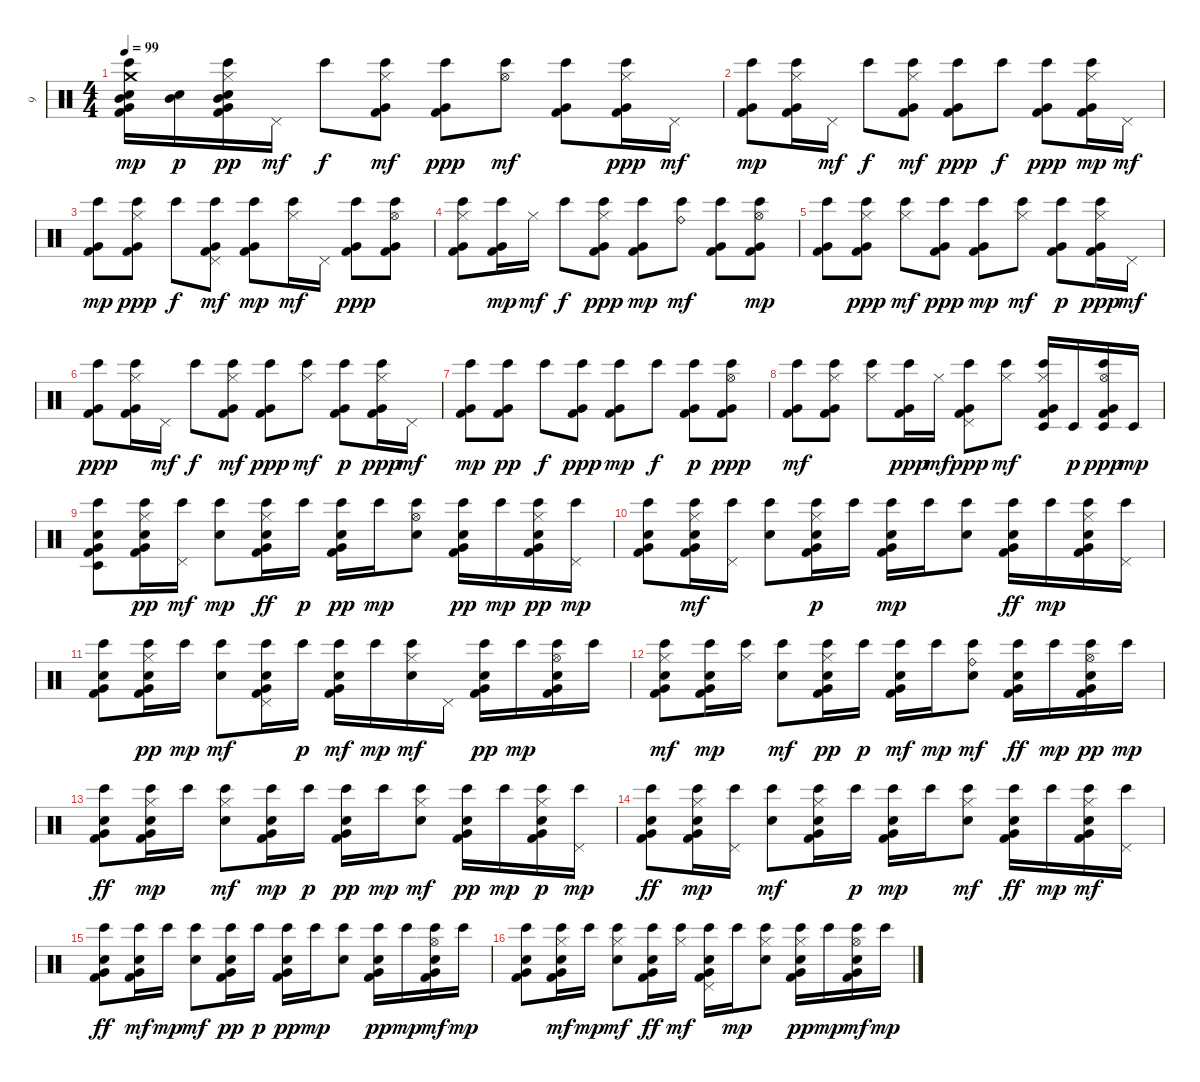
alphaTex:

\track ("9" "9") {instrument percussion}
\staff {score}
\articulation defaults
\ts (4 4)
\tempo 99
\clef neutral
\ks c
("Mid Tom (hit)" "Very Low Tom (hit)" "Kick (hit) 2" "Electric Snare (hit)" "Crash medium (hit)" "Bongo High (hit)").16{dy mp} ("Mid Tom (hit)" "Electric Snare (hit)").16{dy p} ("Bongo High (hit)" "Kick (hit) 2" "Very Low Tom (hit)" "Electric Snare (hit)" "Hi-Hat (closed)" "Mid Tom (hit)").16{dy pp} "Pedal Hi-Hat (hit)".16{dy mf} "Bongo High (hit)".8{dy f} ("Kick (hit) 2" "Very Low Tom (hit)" "Bongo High (hit)" "Hi-Hat (closed)").8{dy mf} ("Kick (hit) 2" "Bongo High (hit)" "Very Low Tom (hit)").8{dy ppp} ("Bongo High (hit)" "Hi-Hat (open)").8{dy mf} ("Bongo High (hit)" "Very Low Tom (hit)" "Kick (hit) 2").8 ("Kick (hit) 2" "Hi-Hat (closed)" "Bongo High (hit)" "Very Low Tom (hit)").16{dy ppp} "Pedal Hi-Hat (hit)".16{dy mf} |
("Kick (hit) 2" "Very Low Tom (hit)" "Bongo High (hit)").8{dy mp} ("Bongo High (hit)" "Hi-Hat (closed)" "Very Low Tom (hit)" "Kick (hit) 2").16 "Pedal Hi-Hat (hit)".16{dy mf} "Bongo High (hit)".8{dy f} ("Very Low Tom (hit)" "Kick (hit) 2" "Bongo High (hit)" "Hi-Hat (closed)").8{dy mf} ("Kick (hit) 2" "Bongo High (hit)" "Very Low Tom (hit)").8{dy ppp} "Bongo High (hit)".8{dy f} ("Kick (hit) 2" "Bongo High (hit)" "Very Low Tom (hit)").8{dy ppp} ("Hi-Hat (closed)" "Bongo High (hit)" "Very Low Tom (hit)" "Kick (hit) 2").16{dy mp} "Pedal Hi-Hat (hit)".16{dy mf} |
("Very Low Tom (hit)" "Kick (hit) 2" "Bongo High (hit)").8{dy mp} ("Hi-Hat (closed)" "Bongo High (hit)" "Kick (hit) 2" "Very Low Tom (hit)").8{dy ppp} "Bongo High (hit)".8{dy f} ("Kick (hit) 2" "Bongo High (hit)" "Very Low Tom (hit)" "Pedal Hi-Hat (hit)").8{dy mf} ("Very Low Tom (hit)" "Bongo High (hit)" "Kick (hit) 2").8{dy mp} ("Hi-Hat (closed)" "Bongo High (hit)").16{dy mf} "Pedal Hi-Hat (hit)".16 ("Kick (hit) 2" "Bongo High (hit)" "Very Low Tom (hit)").8{dy ppp} ("Kick (hit) 2" "Hi-Hat (open)" "Bongo High (hit)" "Very Low Tom (hit)").8 |
("Hi-Hat (closed)" "Kick (hit) 2" "Bongo High (hit)" "Very Low Tom (hit)").8 ("Bongo High (hit)" "Very Low Tom (hit)" "Kick (hit) 2").16{dy mp} "Hi-Hat (closed)".16{dy mf} "Bongo High (hit)".8{dy f} ("Hi-Hat (closed)" "Kick (hit) 2" "Bongo High (hit)" "Very Low Tom (hit)").8{dy ppp} ("Bongo High (hit)" "Very Low Tom (hit)" "Kick (hit) 2").8{dy mp} ("Bongo High (hit)" "Ride (bell)").8{dy mf} ("Bongo High (hit)" "Very Low Tom (hit)" "Kick (hit) 2").8 ("Hi-Hat (open)" "Very Low Tom (hit)" "Kick (hit) 2" "Bongo High (hit)").8{dy mp} |
("Very Low Tom (hit)" "Kick (hit) 2" "Bongo High (hit)").8 ("Hi-Hat (closed)" "Bongo High (hit)" "Kick (hit) 2" "Very Low Tom (hit)").8{dy ppp} ("Hi-Hat (closed)" "Bongo High (hit)").8{dy mf} ("Bongo High (hit)" "Very Low Tom (hit)" "Kick (hit) 2").8{dy ppp} ("Bongo High (hit)" "Very Low Tom (hit)" "Kick (hit) 2").8{dy mp} ("Hi-Hat (closed)" "Bongo High (hit)").8{dy mf} ("Kick (hit) 2" "Very Low Tom (hit)" "Bongo High (hit)").8{dy p} ("Hi-Hat (closed)" "Kick (hit) 2" "Bongo High (hit)" "Very Low Tom (hit)").16{dy ppp} "Pedal Hi-Hat (hit)".16{dy mf} |
("Kick (hit) 2" "Bongo High (hit)" "Very Low Tom (hit)").8{dy ppp} ("Bongo High (hit)" "Kick (hit) 2" "Hi-Hat (closed)" "Very Low Tom (hit)").16 "Pedal Hi-Hat (hit)".16{dy mf} "Bongo High (hit)".8{dy f} ("Bongo High (hit)" "Kick (hit) 2" "Very Low Tom (hit)" "Hi-Hat (closed)").8{dy mf} ("Kick (hit) 2" "Bongo High (hit)" "Very Low Tom (hit)").8{dy ppp} ("Hi-Hat (closed)" "Bongo High (hit)").8{dy mf} ("Very Low Tom (hit)" "Kick (hit) 2" "Bongo High (hit)").8{dy p} ("Kick (hit) 2" "Hi-Hat (closed)" "Bongo High (hit)" "Very Low Tom (hit)").16{dy ppp} "Pedal Hi-Hat (hit)".16{dy mf} |
("Kick (hit) 2" "Very Low Tom (hit)" "Bongo High (hit)").8{dy mp} ("Kick (hit) 2" "Very Low Tom (hit)" "Bongo High (hit)").8{dy pp} "Bongo High (hit)".8{dy f} ("Bongo High (hit)" "Very Low Tom (hit)" "Kick (hit) 2").8{dy ppp} ("Bongo High (hit)" "Very Low Tom (hit)" "Kick (hit) 2").8{dy mp} "Bongo High (hit)".8{dy f} ("Very Low Tom (hit)" "Kick (hit) 2" "Bongo High (hit)").8{dy p} ("Kick (hit) 2" "Bongo High (hit)" "Hi-Hat (open)" "Very Low Tom (hit)").8{dy ppp} |
("Bongo High (hit)" "Very Low Tom (hit)" "Kick (hit) 2").8{dy mf} ("Very Low Tom (hit)" "Bongo High (hit)" "Kick (hit) 2" "Hi-Hat (closed)").8 ("Hi-Hat (closed)" "Bongo High (hit)").8 ("Kick (hit) 2" "Bongo High (hit)" "Very Low Tom (hit)").16{dy ppp} "Hi-Hat (closed)".16{dy mf} ("Pedal Hi-Hat (hit)" "Bongo High (hit)" "Kick (hit) 2" "Very Low Tom (hit)").8{dy ppp} ("Hi-Hat (closed)" "Bongo High (hit)").8{dy mf} ("Very Low Tom (hit)" "Kick (hit) 2" "Bongo High (hit)" "Timbale low (hit)" "Hi-Hat (closed)").16 "Timbale low (hit)".16{dy p} ("Kick (hit) 2" "Bongo High (hit)" "Timbale low (hit)" "Hi-Hat (open)" "Very Low Tom (hit)").16{dy ppp} "Timbale low (hit)".16{dy mp} |
("Timbale low (hit)" "Kick (hit) 2" "Very Low Tom (hit)" "Electric Snare (hit)" "Bongo High (hit)").8 ("Kick (hit) 2" "Hi-Hat (closed)" "Electric Snare (hit)" "Bongo High (hit)" "Very Low Tom (hit)").16{dy pp} ("Bongo High (hit)" "Pedal Hi-Hat (hit)").16{dy mf} ("Electric Snare (hit)" "Bongo High (hit)").8{dy mp} ("Bongo High (hit)" "Hi-Hat (closed)" "Electric Snare (hit)" "Very Low Tom (hit)" "Kick (hit) 2").16{dy ff} "Bongo High (hit)".16{dy p} ("Kick (hit) 2" "Very Low Tom (hit)" "Bongo High (hit)" "Electric Snare (hit)").16{dy pp} "Bongo High (hit)".16{dy mp} ("Hi-Hat (open)" "Electric Snare (hit)" "Bongo High (hit)").8 ("Kick (hit) 2" "Bongo High (hit)" "Very Low Tom (hit)" "Electric Snare (hit)").16{dy pp} "Bongo High (hit)".16{dy mp} ("Bongo High (hit)" "Hi-Hat (closed)" "Electric Snare (hit)" "Kick (hit) 2" "Very Low Tom (hit)").16{dy pp} ("Pedal Hi-Hat (hit)" "Bongo High (hit)").16{dy mp} |
("Electric Snare (hit)" "Very Low Tom (hit)" "Kick (hit) 2" "Bongo High (hit)").8 ("Electric Snare (hit)" "Very Low Tom (hit)" "Kick (hit) 2" "Hi-Hat (closed)" "Bongo High (hit)").16{dy mf} ("Bongo High (hit)" "Pedal Hi-Hat (hit)").16 ("Bongo High (hit)" "Electric Snare (hit)").8 ("Kick (hit) 2" "Bongo High (hit)" "Hi-Hat (closed)" "Very Low Tom (hit)" "Electric Snare (hit)").16{dy p} "Bongo High (hit)".16 ("Very Low Tom (hit)" "Bongo High (hit)" "Electric Snare (hit)" "Kick (hit) 2").16{dy mp} "Bongo High (hit)".16 ("Electric Snare (hit)" "Bongo High (hit)").8 ("Electric Snare (hit)" "Bongo High (hit)" "Very Low Tom (hit)" "Kick (hit) 2").16{dy ff} "Bongo High (hit)".16{dy mp} ("Electric Snare (hit)" "Hi-Hat (closed)" "Kick (hit) 2" "Very Low Tom (hit)" "Bongo High (hit)").16 ("Pedal Hi-Hat (hit)" "Bongo High (hit)").16 |
("Kick (hit) 2" "Bongo High (hit)" "Very Low Tom (hit)" "Electric Snare (hit)").8 ("Kick (hit) 2" "Bongo High (hit)" "Electric Snare (hit)" "Hi-Hat (closed)" "Very Low Tom (hit)").16{dy pp} "Bongo High (hit)".16{dy mp} ("Bongo High (hit)" "Electric Snare (hit)").8{dy mf} ("Electric Snare (hit)" "Kick (hit) 2" "Bongo High (hit)" "Very Low Tom (hit)" "Pedal Hi-Hat (hit)").16 "Bongo High (hit)".16{dy p} ("Very Low Tom (hit)" "Electric Snare (hit)" "Kick (hit) 2" "Bongo High (hit)").16{dy mf} "Bongo High (hit)".16{dy mp} ("Electric Snare (hit)" "Bongo High (hit)" "Hi-Hat (closed)").16{dy mf} "Pedal Hi-Hat (hit)".16 ("Kick (hit) 2" "Bongo High (hit)" "Electric Snare (hit)" "Very Low Tom (hit)").16{dy pp} "Bongo High (hit)".16{dy mp} ("Kick (hit) 2" "Electric Snare (hit)" "Hi-Hat (open)" "Very Low Tom (hit)" "Bongo High (hit)").16 "Bongo High (hit)".16 |
("Very Low Tom (hit)" "Electric Snare (hit)" "Bongo High (hit)" "Kick (hit) 2" "Hi-Hat (closed)").8{dy mf} ("Very Low Tom (hit)" "Bongo High (hit)" "Electric Snare (hit)" "Kick (hit) 2").16{dy mp} ("Hi-Hat (closed)" "Bongo High (hit)").16 ("Bongo High (hit)" "Electric Snare (hit)").8{dy mf} ("Hi-Hat (closed)" "Electric Snare (hit)" "Bongo High (hit)" "Kick (hit) 2" "Very Low Tom (hit)").16{dy pp} "Bongo High (hit)".16{dy p} ("Electric Snare (hit)" "Kick (hit) 2" "Very Low Tom (hit)" "Bongo High (hit)").16{dy mf} "Bongo High (hit)".16{dy mp} ("Electric Snare (hit)" "Bongo High (hit)" "Ride (bell)").8{dy mf} ("Very Low Tom (hit)" "Electric Snare (hit)" "Bongo High (hit)" "Kick (hit) 2").16{dy ff} "Bongo High (hit)".16{dy mp} ("Bongo High (hit)" "Kick (hit) 2" "Electric Snare (hit)" "Hi-Hat (open)" "Very Low Tom (hit)").16{dy pp} "Bongo High (hit)".16{dy mp} |
("Electric Snare (hit)" "Very Low Tom (hit)" "Bongo High (hit)" "Kick (hit) 2").8{dy ff} ("Very Low Tom (hit)" "Electric Snare (hit)" "Hi-Hat (closed)" "Bongo High (hit)" "Kick (hit) 2").16{dy mp} "Bongo High (hit)".16 ("Bongo High (hit)" "Electric Snare (hit)" "Hi-Hat (closed)").8{dy mf} ("Kick (hit) 2" "Electric Snare (hit)" "Very Low Tom (hit)" "Bongo High (hit)").16{dy mp} "Bongo High (hit)".16{dy p} ("Bongo High (hit)" "Electric Snare (hit)" "Kick (hit) 2" "Very Low Tom (hit)").16{dy pp} "Bongo High (hit)".16{dy mp} ("Bongo High (hit)" "Electric Snare (hit)" "Hi-Hat (closed)").8{dy mf} ("Very Low Tom (hit)" "Bongo High (hit)" "Kick (hit) 2" "Electric Snare (hit)").16{dy pp} "Bongo High (hit)".16{dy mp} ("Bongo High (hit)" "Hi-Hat (closed)" "Kick (hit) 2" "Very Low Tom (hit)" "Electric Snare (hit)").16{dy p} ("Pedal Hi-Hat (hit)" "Bongo High (hit)").16{dy mp} |
("Electric Snare (hit)" "Very Low Tom (hit)" "Bongo High (hit)" "Kick (hit) 2").8{dy ff} ("Very Low Tom (hit)" "Hi-Hat (closed)" "Bongo High (hit)" "Electric Snare (hit)" "Kick (hit) 2").16{dy mp} ("Pedal Hi-Hat (hit)" "Bongo High (hit)").16 ("Bongo High (hit)" "Electric Snare (hit)").8{dy mf} ("Bongo High (hit)" "Electric Snare (hit)" "Kick (hit) 2" "Very Low Tom (hit)" "Hi-Hat (closed)").16 "Bongo High (hit)".16{dy p} ("Electric Snare (hit)" "Bongo High (hit)" "Very Low Tom (hit)" "Kick (hit) 2").16{dy mp} "Bongo High (hit)".16 ("Hi-Hat (closed)" "Bongo High (hit)" "Electric Snare (hit)").8{dy mf} ("Electric Snare (hit)" "Very Low Tom (hit)" "Bongo High (hit)" "Kick (hit) 2").16{dy ff} "Bongo High (hit)".16{dy mp} ("Bongo High (hit)" "Kick (hit) 2" "Very Low Tom (hit)" "Electric Snare (hit)" "Hi-Hat (closed)").16{dy mf} ("Bongo High (hit)" "Pedal Hi-Hat (hit)").16 |
("Electric Snare (hit)" "Very Low Tom (hit)" "Bongo High (hit)" "Kick (hit) 2").8{dy ff} ("Very Low Tom (hit)" "Kick (hit) 2" "Electric Snare (hit)" "Bongo High (hit)").16{dy mf} "Bongo High (hit)".16{dy mp} ("Bongo High (hit)" "Electric Snare (hit)").8{dy mf} ("Electric Snare (hit)" "Kick (hit) 2" "Bongo High (hit)" "Very Low Tom (hit)").16{dy pp} "Bongo High (hit)".16{dy p} ("Electric Snare (hit)" "Kick (hit) 2" "Bongo High (hit)" "Very Low Tom (hit)").16{dy pp} "Bongo High (hit)".16{dy mp} ("Electric Snare (hit)" "Bongo High (hit)").8 ("Electric Snare (hit)" "Bongo High (hit)" "Kick (hit) 2" "Very Low Tom (hit)").16{dy pp} "Bongo High (hit)".16{dy mp} ("Bongo High (hit)" "Electric Snare (hit)" "Kick (hit) 2" "Very Low Tom (hit)" "Hi-Hat (open)").16{dy mf} "Bongo High (hit)".16{dy mp} |
("Kick (hit) 2" "Very Low Tom (hit)" "Electric Snare (hit)" "Bongo High (hit)").8 ("Electric Snare (hit)" "Hi-Hat (closed)" "Kick (hit) 2" "Very Low Tom (hit)" "Bongo High (hit)").16{dy mf} "Bongo High (hit)".16{dy mp} ("Bongo High (hit)" "Electric Snare (hit)" "Hi-Hat (closed)").8{dy mf} ("Electric Snare (hit)" "Bongo High (hit)" "Very Low Tom (hit)" "Kick (hit) 2").16{dy ff} ("Bongo High (hit)" "Hi-Hat (closed)").16{dy mf} ("Electric Snare (hit)" "Kick (hit) 2" "Very Low Tom (hit)" "Pedal Hi-Hat (hit)" "Bongo High (hit)").16 "Bongo High (hit)".16{dy mp} ("Electric Snare (hit)" "Hi-Hat (closed)" "Bongo High (hit)").8 ("Kick (hit) 2" "Bongo High (hit)" "Very Low Tom (hit)" "Hi-Hat (closed)" "Electric Snare (hit)").16{dy pp} "Bongo High (hit)".16{dy mp} ("Kick (hit) 2" "Electric Snare (hit)" "Very Low Tom (hit)" "Bongo High (hit)" "Hi-Hat (open)").16{dy mf} "Bongo High (hit)".16{dy mp}
